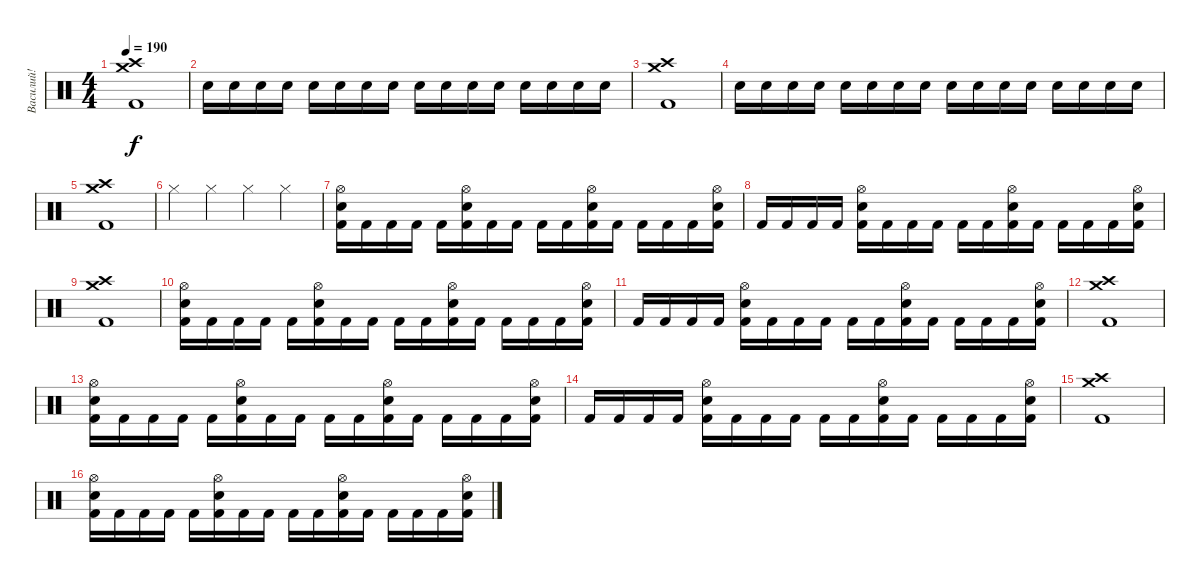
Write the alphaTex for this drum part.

\track ("Василий!" "Василий!") {instrument percussion}
\staff {score}
\articulation defaults
\ts (4 4)
\tempo 190
\clef neutral
\ks c
("Kick (hit) 2" "Crash high (hit)" "Crash medium (hit)").1{dy f} |
"Electric Snare (hit)".16 "Electric Snare (hit)".16 "Electric Snare (hit)".16 "Electric Snare (hit)".16 "Electric Snare (hit)".16 "Electric Snare (hit)".16 "Electric Snare (hit)".16 "Electric Snare (hit)".16 "Electric Snare (hit)".16 "Electric Snare (hit)".16 "Electric Snare (hit)".16 "Electric Snare (hit)".16 "Electric Snare (hit)".16 "Electric Snare (hit)".16 "Electric Snare (hit)".16 "Electric Snare (hit)".16 |
("Kick (hit) 2" "Crash high (hit)" "Crash medium (hit)").1 |
"Electric Snare (hit)".16 "Electric Snare (hit)".16 "Electric Snare (hit)".16 "Electric Snare (hit)".16 "Electric Snare (hit)".16 "Electric Snare (hit)".16 "Electric Snare (hit)".16 "Electric Snare (hit)".16 "Electric Snare (hit)".16 "Electric Snare (hit)".16 "Electric Snare (hit)".16 "Electric Snare (hit)".16 "Electric Snare (hit)".16 "Electric Snare (hit)".16 "Electric Snare (hit)".16 "Electric Snare (hit)".16 |
("Kick (hit) 2" "Crash high (hit)" "Crash medium (hit)").1 |
"Hi-Hat (closed)".4 "Hi-Hat (closed)".4 "Hi-Hat (closed)".4 "Hi-Hat (closed)".4 |
("Kick (hit) 2" "Electric Snare (hit)" "Hi-Hat (open)").16 "Kick (hit) 2".16 "Kick (hit) 2".16 "Kick (hit) 2".16 "Kick (hit) 2".16 ("Kick (hit) 2" "Electric Snare (hit)" "Hi-Hat (open)").16 "Kick (hit) 2".16 "Kick (hit) 2".16 "Kick (hit) 2".16 "Kick (hit) 2".16 ("Kick (hit) 2" "Electric Snare (hit)" "Hi-Hat (open)").16 "Kick (hit) 2".16 "Kick (hit) 2".16 "Kick (hit) 2".16 "Kick (hit) 2".16 ("Kick (hit) 2" "Electric Snare (hit)" "Hi-Hat (open)").16 |
"Kick (hit) 2".16 "Kick (hit) 2".16 "Kick (hit) 2".16 "Kick (hit) 2".16 ("Kick (hit) 2" "Electric Snare (hit)" "Hi-Hat (open)").16 "Kick (hit) 2".16 "Kick (hit) 2".16 "Kick (hit) 2".16 "Kick (hit) 2".16 "Kick (hit) 2".16 ("Kick (hit) 2" "Electric Snare (hit)" "Hi-Hat (open)").16 "Kick (hit) 2".16 "Kick (hit) 2".16 "Kick (hit) 2".16 "Kick (hit) 2".16 ("Kick (hit) 2" "Electric Snare (hit)" "Hi-Hat (open)").16 |
("Kick (hit) 2" "Crash high (hit)" "Crash medium (hit)").1 |
("Kick (hit) 2" "Electric Snare (hit)" "Hi-Hat (open)").16 "Kick (hit) 2".16 "Kick (hit) 2".16 "Kick (hit) 2".16 "Kick (hit) 2".16 ("Kick (hit) 2" "Electric Snare (hit)" "Hi-Hat (open)").16 "Kick (hit) 2".16 "Kick (hit) 2".16 "Kick (hit) 2".16 "Kick (hit) 2".16 ("Kick (hit) 2" "Electric Snare (hit)" "Hi-Hat (open)").16 "Kick (hit) 2".16 "Kick (hit) 2".16 "Kick (hit) 2".16 "Kick (hit) 2".16 ("Kick (hit) 2" "Electric Snare (hit)" "Hi-Hat (open)").16 |
"Kick (hit) 2".16 "Kick (hit) 2".16 "Kick (hit) 2".16 "Kick (hit) 2".16 ("Kick (hit) 2" "Electric Snare (hit)" "Hi-Hat (open)").16 "Kick (hit) 2".16 "Kick (hit) 2".16 "Kick (hit) 2".16 "Kick (hit) 2".16 "Kick (hit) 2".16 ("Kick (hit) 2" "Electric Snare (hit)" "Hi-Hat (open)").16 "Kick (hit) 2".16 "Kick (hit) 2".16 "Kick (hit) 2".16 "Kick (hit) 2".16 ("Kick (hit) 2" "Electric Snare (hit)" "Hi-Hat (open)").16 |
("Kick (hit) 2" "Crash high (hit)" "Crash medium (hit)").1 |
("Kick (hit) 2" "Electric Snare (hit)" "Hi-Hat (open)").16 "Kick (hit) 2".16 "Kick (hit) 2".16 "Kick (hit) 2".16 "Kick (hit) 2".16 ("Kick (hit) 2" "Electric Snare (hit)" "Hi-Hat (open)").16 "Kick (hit) 2".16 "Kick (hit) 2".16 "Kick (hit) 2".16 "Kick (hit) 2".16 ("Kick (hit) 2" "Electric Snare (hit)" "Hi-Hat (open)").16 "Kick (hit) 2".16 "Kick (hit) 2".16 "Kick (hit) 2".16 "Kick (hit) 2".16 ("Kick (hit) 2" "Electric Snare (hit)" "Hi-Hat (open)").16 |
"Kick (hit) 2".16 "Kick (hit) 2".16 "Kick (hit) 2".16 "Kick (hit) 2".16 ("Kick (hit) 2" "Electric Snare (hit)" "Hi-Hat (open)").16 "Kick (hit) 2".16 "Kick (hit) 2".16 "Kick (hit) 2".16 "Kick (hit) 2".16 "Kick (hit) 2".16 ("Kick (hit) 2" "Electric Snare (hit)" "Hi-Hat (open)").16 "Kick (hit) 2".16 "Kick (hit) 2".16 "Kick (hit) 2".16 "Kick (hit) 2".16 ("Kick (hit) 2" "Electric Snare (hit)" "Hi-Hat (open)").16 |
("Kick (hit) 2" "Crash high (hit)" "Crash medium (hit)").1 |
("Kick (hit) 2" "Electric Snare (hit)" "Hi-Hat (open)").16 "Kick (hit) 2".16 "Kick (hit) 2".16 "Kick (hit) 2".16 "Kick (hit) 2".16 ("Kick (hit) 2" "Electric Snare (hit)" "Hi-Hat (open)").16 "Kick (hit) 2".16 "Kick (hit) 2".16 "Kick (hit) 2".16 "Kick (hit) 2".16 ("Kick (hit) 2" "Electric Snare (hit)" "Hi-Hat (open)").16 "Kick (hit) 2".16 "Kick (hit) 2".16 "Kick (hit) 2".16 "Kick (hit) 2".16 ("Kick (hit) 2" "Electric Snare (hit)" "Hi-Hat (open)").16
